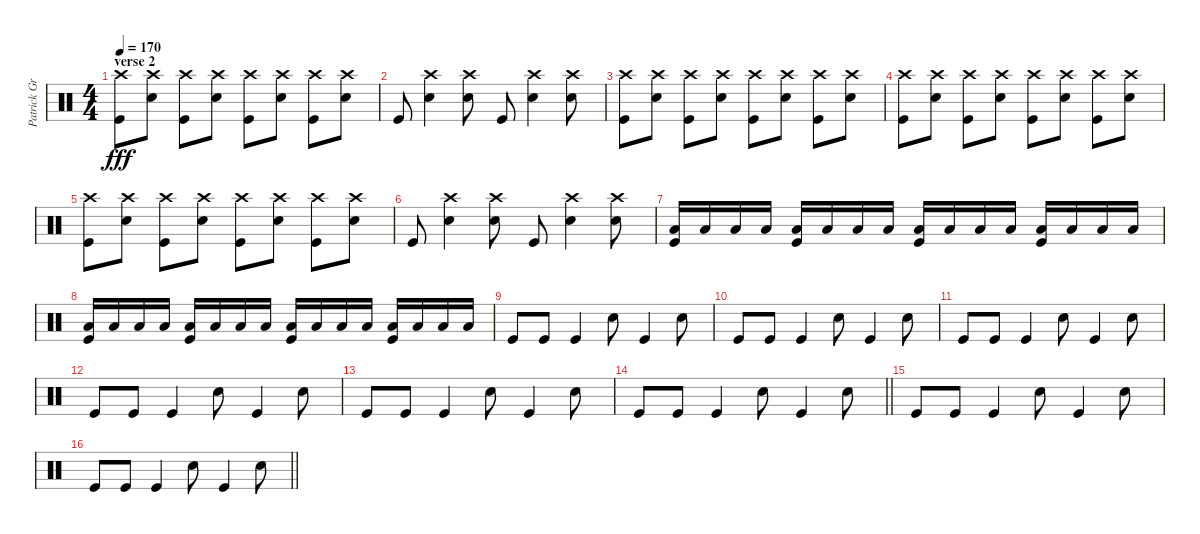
\track ("Patrick Grün - Drums" "Patrick Gr") {instrument percussion}
\staff {score}
\articulation defaults
\ts (4 4)
\section ("" "verse 2")
\tempo 170
\clef neutral
\ks c
("Kick (hit)" "Crash high (hit)").8{dy fff} ("Snare (hit) 2" "Crash high (hit)").8 ("Kick (hit)" "Crash high (hit)").8 ("Snare (hit) 2" "Crash high (hit)").8 ("Kick (hit)" "Crash high (hit)").8 ("Snare (hit) 2" "Crash high (hit)").8 ("Kick (hit)" "Crash high (hit)").8 ("Snare (hit) 2" "Crash high (hit)").8 |
"Kick (hit)".8 ("Snare (hit) 2" "Crash high (hit)").4 ("Snare (hit) 2" "Crash high (hit)").8 "Kick (hit)".8 ("Snare (hit) 2" "Crash high (hit)").4 ("Snare (hit) 2" "Crash high (hit)").8 |
("Kick (hit)" "Crash high (hit)").8 ("Snare (hit) 2" "Crash high (hit)").8 ("Kick (hit)" "Crash high (hit)").8 ("Snare (hit) 2" "Crash high (hit)").8 ("Kick (hit)" "Crash high (hit)").8 ("Snare (hit) 2" "Crash high (hit)").8 ("Kick (hit)" "Crash high (hit)").8 ("Snare (hit) 2" "Crash high (hit)").8 |
("Kick (hit)" "Crash high (hit)").8 ("Snare (hit) 2" "Crash high (hit)").8 ("Kick (hit)" "Crash high (hit)").8 ("Snare (hit) 2" "Crash high (hit)").8 ("Kick (hit)" "Crash high (hit)").8 ("Snare (hit) 2" "Crash high (hit)").8 ("Kick (hit)" "Crash high (hit)").8 ("Snare (hit) 2" "Crash high (hit)").8 |
("Kick (hit)" "Crash high (hit)").8 ("Snare (hit) 2" "Crash high (hit)").8 ("Kick (hit)" "Crash high (hit)").8 ("Snare (hit) 2" "Crash high (hit)").8 ("Kick (hit)" "Crash high (hit)").8 ("Snare (hit) 2" "Crash high (hit)").8 ("Kick (hit)" "Crash high (hit)").8 ("Snare (hit) 2" "Crash high (hit)").8 |
"Kick (hit)".8 ("Snare (hit) 2" "Crash high (hit)").4 ("Snare (hit) 2" "Crash high (hit)").8 "Kick (hit)".8 ("Snare (hit) 2" "Crash high (hit)").4 ("Snare (hit) 2" "Crash high (hit)").8 |
("Low Tom (hit)" "Kick (hit)").16 "Low Tom (hit)".16 "Low Tom (hit)".16 "Low Tom (hit)".16 ("Low Tom (hit)" "Kick (hit)").16 "Low Tom (hit)".16 "Low Tom (hit)".16 "Low Tom (hit)".16 ("Low Tom (hit)" "Kick (hit)").16 "Low Tom (hit)".16 "Low Tom (hit)".16 "Low Tom (hit)".16 ("Low Tom (hit)" "Kick (hit)").16 "Low Tom (hit)".16 "Low Tom (hit)".16 "Low Tom (hit)".16 |
("Low Tom (hit)" "Kick (hit)").16 "Low Tom (hit)".16 "Low Tom (hit)".16 "Low Tom (hit)".16 ("Low Tom (hit)" "Kick (hit)").16 "Low Tom (hit)".16 "Low Tom (hit)".16 "Low Tom (hit)".16 ("Low Tom (hit)" "Kick (hit)").16 "Low Tom (hit)".16 "Low Tom (hit)".16 "Low Tom (hit)".16 ("Low Tom (hit)" "Kick (hit)").16 "Low Tom (hit)".16 "Low Tom (hit)".16 "Low Tom (hit)".16 |
"Kick (hit)".8 "Kick (hit)".8 "Kick (hit)".4 "Snare (hit) 2".8 "Kick (hit)".4 "Snare (hit) 2".8 |
"Kick (hit)".8 "Kick (hit)".8 "Kick (hit)".4 "Snare (hit) 2".8 "Kick (hit)".4 "Snare (hit) 2".8 |
"Kick (hit)".8 "Kick (hit)".8 "Kick (hit)".4 "Snare (hit) 2".8 "Kick (hit)".4 "Snare (hit) 2".8 |
"Kick (hit)".8 "Kick (hit)".8 "Kick (hit)".4 "Snare (hit) 2".8 "Kick (hit)".4 "Snare (hit) 2".8 |
"Kick (hit)".8 "Kick (hit)".8 "Kick (hit)".4 "Snare (hit) 2".8 "Kick (hit)".4 "Snare (hit) 2".8 |
\barLineRight lightlight "Kick (hit)".8 "Kick (hit)".8 "Kick (hit)".4 "Snare (hit) 2".8 "Kick (hit)".4 "Snare (hit) 2".8
|
"Kick (hit)".8 "Kick (hit)".8 "Kick (hit)".4 "Snare (hit) 2".8 "Kick (hit)".4 "Snare (hit) 2".8 |
\barLineRight lightlight "Kick (hit)".8 "Kick (hit)".8 "Kick (hit)".4 "Snare (hit) 2".8 "Kick (hit)".4 "Snare (hit) 2".8
